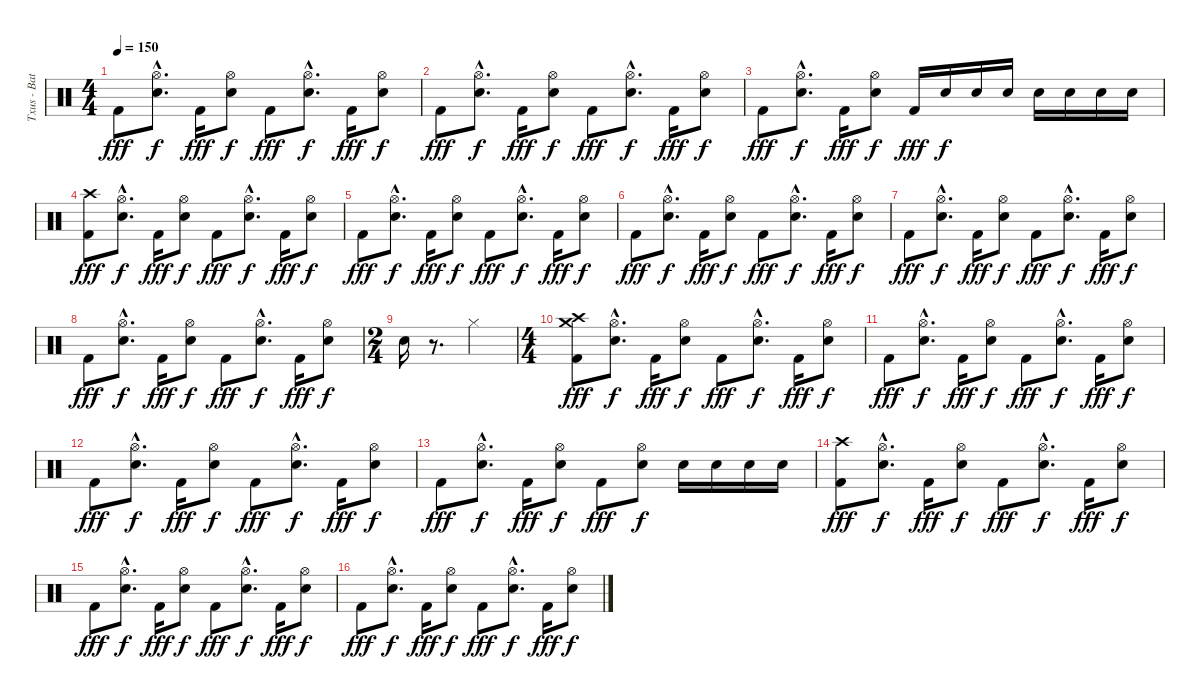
\track ("Txus - Batería" "Txus - Bat") {instrument percussion}
\staff {score}
\articulation defaults
\ts (4 4)
\tempo 150
\clef neutral
\ks c "Kick (hit) 2".8{dy fff}
("Hi-Hat (open)"{hac} "Electric Snare (hit)"{hac}).8{d dy f} "Kick (hit) 2".16{dy fff} ("Hi-Hat (open)" "Electric Snare (hit)").8{dy f} "Kick (hit) 2".8{dy fff} ("Hi-Hat (open)"{hac} "Electric Snare (hit)"{hac}).8{d dy f} "Kick (hit) 2".16{dy fff} ("Hi-Hat (open)" "Electric Snare (hit)").8{dy f} |
"Kick (hit) 2".8{dy fff} ("Hi-Hat (open)"{hac} "Electric Snare (hit)"{hac}).8{d dy f} "Kick (hit) 2".16{dy fff} ("Hi-Hat (open)" "Electric Snare (hit)").8{dy f} "Kick (hit) 2".8{dy fff} ("Hi-Hat (open)"{hac} "Electric Snare (hit)"{hac}).8{d dy f} "Kick (hit) 2".16{dy fff} ("Hi-Hat (open)" "Electric Snare (hit)").8{dy f} |
"Kick (hit) 2".8{dy fff} ("Hi-Hat (open)"{hac} "Electric Snare (hit)"{hac}).8{d dy f} "Kick (hit) 2".16{dy fff} ("Hi-Hat (open)" "Electric Snare (hit)").8{dy f} "Kick (hit) 2".16{dy fff} "Electric Snare (hit)".16{dy f} "Electric Snare (hit)".16 "Electric Snare (hit)".16 "Electric Snare (hit)".16 "Electric Snare (hit)".16 "Electric Snare (hit)".16 "Electric Snare (hit)".16 |
("Crash high (hit)" "Kick (hit) 2").8{dy fff} ("Hi-Hat (open)"{hac} "Electric Snare (hit)"{hac}).8{d dy f} "Kick (hit) 2".16{dy fff} ("Hi-Hat (open)" "Electric Snare (hit)").8{dy f} "Kick (hit) 2".8{dy fff} ("Hi-Hat (open)"{hac} "Electric Snare (hit)"{hac}).8{d dy f} "Kick (hit) 2".16{dy fff} ("Hi-Hat (open)" "Electric Snare (hit)").8{dy f} |
"Kick (hit) 2".8{dy fff} ("Hi-Hat (open)"{hac} "Electric Snare (hit)"{hac}).8{d dy f} "Kick (hit) 2".16{dy fff} ("Hi-Hat (open)" "Electric Snare (hit)").8{dy f} "Kick (hit) 2".8{dy fff} ("Hi-Hat (open)"{hac} "Electric Snare (hit)"{hac}).8{d dy f} "Kick (hit) 2".16{dy fff} ("Hi-Hat (open)" "Electric Snare (hit)").8{dy f} |
"Kick (hit) 2".8{dy fff} ("Hi-Hat (open)"{hac} "Electric Snare (hit)"{hac}).8{d dy f} "Kick (hit) 2".16{dy fff} ("Hi-Hat (open)" "Electric Snare (hit)").8{dy f} "Kick (hit) 2".8{dy fff} ("Hi-Hat (open)"{hac} "Electric Snare (hit)"{hac}).8{d dy f} "Kick (hit) 2".16{dy fff} ("Hi-Hat (open)" "Electric Snare (hit)").8{dy f} |
"Kick (hit) 2".8{dy fff} ("Hi-Hat (open)"{hac} "Electric Snare (hit)"{hac}).8{d dy f} "Kick (hit) 2".16{dy fff} ("Hi-Hat (open)" "Electric Snare (hit)").8{dy f} "Kick (hit) 2".8{dy fff} ("Hi-Hat (open)"{hac} "Electric Snare (hit)"{hac}).8{d dy f} "Kick (hit) 2".16{dy fff} ("Hi-Hat (open)" "Electric Snare (hit)").8{dy f} |
"Kick (hit) 2".8{dy fff} ("Hi-Hat (open)"{hac} "Electric Snare (hit)"{hac}).8{d dy f} "Kick (hit) 2".16{dy fff} ("Hi-Hat (open)" "Electric Snare (hit)").8{dy f} "Kick (hit) 2".8{dy fff} ("Hi-Hat (open)"{hac} "Electric Snare (hit)"{hac}).8{d dy f} "Kick (hit) 2".16{dy fff} ("Hi-Hat (open)" "Electric Snare (hit)").8{dy f} |
\ts (2 4)
"Electric Snare (hit)".16 r.8{d} "Hi-Hat (closed)".4 |
\ts (4 4)
("Crash high (hit)" "Crash medium (hit)" "Kick (hit) 2").8{dy fff} ("Hi-Hat (open)"{hac} "Electric Snare (hit)"{hac}).8{d dy f} "Kick (hit) 2".16{dy fff} ("Hi-Hat (open)" "Electric Snare (hit)").8{dy f} "Kick (hit) 2".8{dy fff} ("Hi-Hat (open)"{hac} "Electric Snare (hit)"{hac}).8{d dy f} "Kick (hit) 2".16{dy fff} ("Hi-Hat (open)" "Electric Snare (hit)").8{dy f} |
"Kick (hit) 2".8{dy fff} ("Hi-Hat (open)"{hac} "Electric Snare (hit)"{hac}).8{d dy f} "Kick (hit) 2".16{dy fff} ("Hi-Hat (open)" "Electric Snare (hit)").8{dy f} "Kick (hit) 2".8{dy fff} ("Hi-Hat (open)"{hac} "Electric Snare (hit)"{hac}).8{d dy f} "Kick (hit) 2".16{dy fff} ("Hi-Hat (open)" "Electric Snare (hit)").8{dy f} |
"Kick (hit) 2".8{dy fff} ("Hi-Hat (open)"{hac} "Electric Snare (hit)"{hac}).8{d dy f} "Kick (hit) 2".16{dy fff} ("Hi-Hat (open)" "Electric Snare (hit)").8{dy f} "Kick (hit) 2".8{dy fff} ("Hi-Hat (open)"{hac} "Electric Snare (hit)"{hac}).8{d dy f} "Kick (hit) 2".16{dy fff} ("Hi-Hat (open)" "Electric Snare (hit)").8{dy f} |
"Kick (hit) 2".8{dy fff} ("Hi-Hat (open)"{hac} "Electric Snare (hit)"{hac}).8{d dy f} "Kick (hit) 2".16{dy fff} ("Hi-Hat (open)" "Electric Snare (hit)").8{dy f} "Kick (hit) 2".8{dy fff} ("Hi-Hat (open)" "Electric Snare (hit)").8{dy f} "Electric Snare (hit)".16 "Electric Snare (hit)".16 "Electric Snare (hit)".16 "Electric Snare (hit)".16 |
("Crash high (hit)" "Kick (hit) 2").8{dy fff} ("Hi-Hat (open)"{hac} "Electric Snare (hit)"{hac}).8{d dy f} "Kick (hit) 2".16{dy fff} ("Hi-Hat (open)" "Electric Snare (hit)").8{dy f} "Kick (hit) 2".8{dy fff} ("Hi-Hat (open)"{hac} "Electric Snare (hit)"{hac}).8{d dy f} "Kick (hit) 2".16{dy fff} ("Hi-Hat (open)" "Electric Snare (hit)").8{dy f} |
"Kick (hit) 2".8{dy fff} ("Hi-Hat (open)"{hac} "Electric Snare (hit)"{hac}).8{d dy f} "Kick (hit) 2".16{dy fff} ("Hi-Hat (open)" "Electric Snare (hit)").8{dy f} "Kick (hit) 2".8{dy fff} ("Hi-Hat (open)"{hac} "Electric Snare (hit)"{hac}).8{d dy f} "Kick (hit) 2".16{dy fff} ("Hi-Hat (open)" "Electric Snare (hit)").8{dy f} |
"Kick (hit) 2".8{dy fff} ("Hi-Hat (open)"{hac} "Electric Snare (hit)"{hac}).8{d dy f} "Kick (hit) 2".16{dy fff} ("Hi-Hat (open)" "Electric Snare (hit)").8{dy f} "Kick (hit) 2".8{dy fff} ("Hi-Hat (open)"{hac} "Electric Snare (hit)"{hac}).8{d dy f} "Kick (hit) 2".16{dy fff} ("Hi-Hat (open)" "Electric Snare (hit)").8{dy f}
